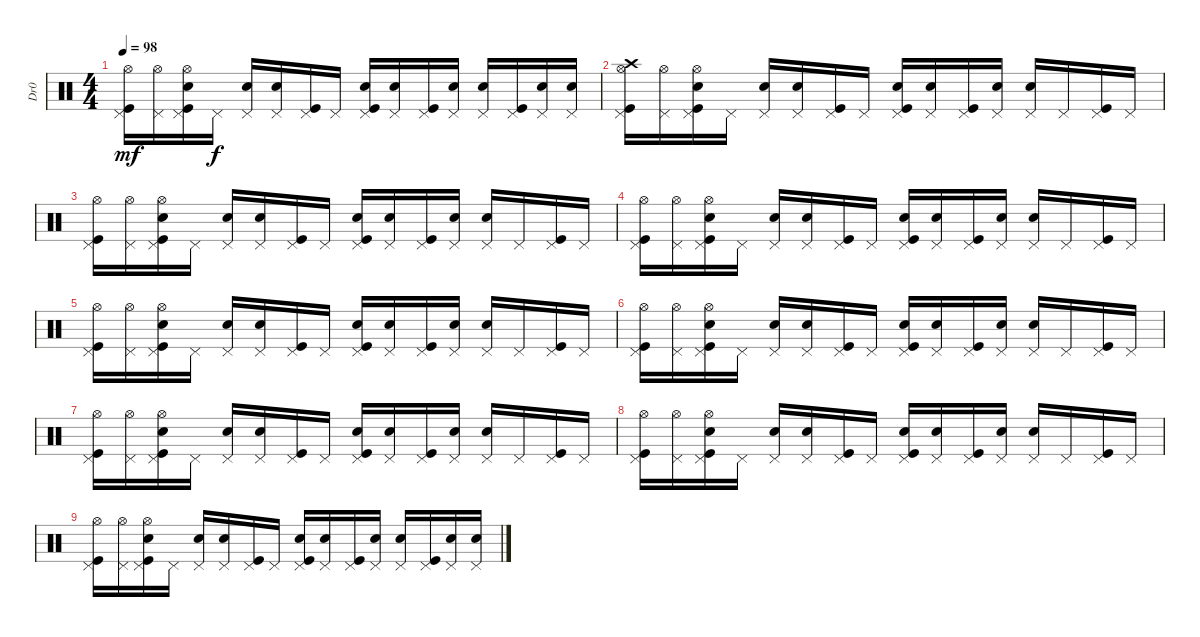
\track ("Dr0" "Dr0") {instrument percussion}
\staff {score}
\articulation defaults
\ts (4 4)
\tempo 98
\clef neutral
\ks c
("Kick (hit)" "Pedal Hi-Hat (hit)" "Hi-Hat (open)").16{dy mf} ("Pedal Hi-Hat (hit)" "Hi-Hat (open)").16 ("Kick (hit)" "Pedal Hi-Hat (hit)" "Hand Clap (hit)" "Hi-Hat (open)").16 "Pedal Hi-Hat (hit)".16{dy f} ("Pedal Hi-Hat (hit)" "Snare (hit) 2").16 ("Pedal Hi-Hat (hit)" "Hand Clap (hit)").16 ("Kick (hit)" "Pedal Hi-Hat (hit)").16 "Pedal Hi-Hat (hit)".16 ("Kick (hit)" "Pedal Hi-Hat (hit)" "Hand Clap (hit)").16 ("Pedal Hi-Hat (hit)" "Snare (hit) 2").16 ("Kick (hit)" "Pedal Hi-Hat (hit)").16 ("Pedal Hi-Hat (hit)" "Hand Clap (hit)").16 ("Pedal Hi-Hat (hit)" "Snare (hit) 2").16 ("Kick (hit)" "Pedal Hi-Hat (hit)").16 ("Pedal Hi-Hat (hit)" "Snare (hit) 2").16 ("Pedal Hi-Hat (hit)" "Snare (hit) 2").16 |
("Kick (hit)" "Pedal Hi-Hat (hit)" "Crash high (hit)" "Hi-Hat (open)").16 ("Pedal Hi-Hat (hit)" "Hi-Hat (open)").16 ("Kick (hit)" "Pedal Hi-Hat (hit)" "Hand Clap (hit)" "Hi-Hat (open)").16 "Pedal Hi-Hat (hit)".16 ("Pedal Hi-Hat (hit)" "Snare (hit) 2").16 ("Pedal Hi-Hat (hit)" "Hand Clap (hit)").16 ("Kick (hit)" "Pedal Hi-Hat (hit)").16 "Pedal Hi-Hat (hit)".16 ("Kick (hit)" "Pedal Hi-Hat (hit)" "Hand Clap (hit)").16 ("Pedal Hi-Hat (hit)" "Snare (hit) 2").16 ("Kick (hit)" "Pedal Hi-Hat (hit)").16 ("Pedal Hi-Hat (hit)" "Hand Clap (hit)").16 ("Pedal Hi-Hat (hit)" "Snare (hit) 2").16 "Pedal Hi-Hat (hit)".16 ("Kick (hit)" "Pedal Hi-Hat (hit)").16 "Pedal Hi-Hat (hit)".16 |
("Kick (hit)" "Pedal Hi-Hat (hit)" "Hi-Hat (open)").16 ("Pedal Hi-Hat (hit)" "Hi-Hat (open)").16 ("Kick (hit)" "Pedal Hi-Hat (hit)" "Hand Clap (hit)" "Hi-Hat (open)").16 "Pedal Hi-Hat (hit)".16 ("Pedal Hi-Hat (hit)" "Snare (hit) 2").16 ("Pedal Hi-Hat (hit)" "Hand Clap (hit)").16 ("Kick (hit)" "Pedal Hi-Hat (hit)").16 "Pedal Hi-Hat (hit)".16 ("Kick (hit)" "Pedal Hi-Hat (hit)" "Hand Clap (hit)").16 ("Pedal Hi-Hat (hit)" "Snare (hit) 2").16 ("Kick (hit)" "Pedal Hi-Hat (hit)").16 ("Pedal Hi-Hat (hit)" "Hand Clap (hit)").16 ("Pedal Hi-Hat (hit)" "Snare (hit) 2").16 "Pedal Hi-Hat (hit)".16 ("Kick (hit)" "Pedal Hi-Hat (hit)").16 "Pedal Hi-Hat (hit)".16 |
("Kick (hit)" "Pedal Hi-Hat (hit)" "Hi-Hat (open)").16 ("Pedal Hi-Hat (hit)" "Hi-Hat (open)").16 ("Kick (hit)" "Pedal Hi-Hat (hit)" "Hand Clap (hit)" "Hi-Hat (open)").16 "Pedal Hi-Hat (hit)".16 ("Pedal Hi-Hat (hit)" "Snare (hit) 2").16 ("Pedal Hi-Hat (hit)" "Hand Clap (hit)").16 ("Kick (hit)" "Pedal Hi-Hat (hit)").16 "Pedal Hi-Hat (hit)".16 ("Kick (hit)" "Pedal Hi-Hat (hit)" "Hand Clap (hit)").16 ("Pedal Hi-Hat (hit)" "Snare (hit) 2").16 ("Kick (hit)" "Pedal Hi-Hat (hit)").16 ("Pedal Hi-Hat (hit)" "Hand Clap (hit)").16 ("Pedal Hi-Hat (hit)" "Snare (hit) 2").16 "Pedal Hi-Hat (hit)".16 ("Kick (hit)" "Pedal Hi-Hat (hit)").16 "Pedal Hi-Hat (hit)".16 |
("Kick (hit)" "Pedal Hi-Hat (hit)" "Hi-Hat (open)").16 ("Pedal Hi-Hat (hit)" "Hi-Hat (open)").16 ("Kick (hit)" "Pedal Hi-Hat (hit)" "Hand Clap (hit)" "Hi-Hat (open)").16 "Pedal Hi-Hat (hit)".16 ("Pedal Hi-Hat (hit)" "Snare (hit) 2").16 ("Pedal Hi-Hat (hit)" "Hand Clap (hit)").16 ("Kick (hit)" "Pedal Hi-Hat (hit)").16 "Pedal Hi-Hat (hit)".16 ("Kick (hit)" "Pedal Hi-Hat (hit)" "Hand Clap (hit)").16 ("Pedal Hi-Hat (hit)" "Snare (hit) 2").16 ("Kick (hit)" "Pedal Hi-Hat (hit)").16 ("Pedal Hi-Hat (hit)" "Hand Clap (hit)").16 ("Pedal Hi-Hat (hit)" "Snare (hit) 2").16 "Pedal Hi-Hat (hit)".16 ("Kick (hit)" "Pedal Hi-Hat (hit)").16 "Pedal Hi-Hat (hit)".16 |
("Kick (hit)" "Pedal Hi-Hat (hit)" "Hi-Hat (open)").16 ("Pedal Hi-Hat (hit)" "Hi-Hat (open)").16 ("Kick (hit)" "Pedal Hi-Hat (hit)" "Hand Clap (hit)" "Hi-Hat (open)").16 "Pedal Hi-Hat (hit)".16 ("Pedal Hi-Hat (hit)" "Snare (hit) 2").16 ("Pedal Hi-Hat (hit)" "Hand Clap (hit)").16 ("Kick (hit)" "Pedal Hi-Hat (hit)").16 "Pedal Hi-Hat (hit)".16 ("Kick (hit)" "Pedal Hi-Hat (hit)" "Hand Clap (hit)").16 ("Pedal Hi-Hat (hit)" "Snare (hit) 2").16 ("Kick (hit)" "Pedal Hi-Hat (hit)").16 ("Pedal Hi-Hat (hit)" "Hand Clap (hit)").16 ("Pedal Hi-Hat (hit)" "Snare (hit) 2").16 "Pedal Hi-Hat (hit)".16 ("Kick (hit)" "Pedal Hi-Hat (hit)").16 "Pedal Hi-Hat (hit)".16 |
("Kick (hit)" "Pedal Hi-Hat (hit)" "Hi-Hat (open)").16 ("Pedal Hi-Hat (hit)" "Hi-Hat (open)").16 ("Kick (hit)" "Pedal Hi-Hat (hit)" "Hand Clap (hit)" "Hi-Hat (open)").16 "Pedal Hi-Hat (hit)".16 ("Pedal Hi-Hat (hit)" "Snare (hit) 2").16 ("Pedal Hi-Hat (hit)" "Hand Clap (hit)").16 ("Kick (hit)" "Pedal Hi-Hat (hit)").16 "Pedal Hi-Hat (hit)".16 ("Kick (hit)" "Pedal Hi-Hat (hit)" "Hand Clap (hit)").16 ("Pedal Hi-Hat (hit)" "Snare (hit) 2").16 ("Kick (hit)" "Pedal Hi-Hat (hit)").16 ("Pedal Hi-Hat (hit)" "Hand Clap (hit)").16 ("Pedal Hi-Hat (hit)" "Snare (hit) 2").16 "Pedal Hi-Hat (hit)".16 ("Kick (hit)" "Pedal Hi-Hat (hit)").16 "Pedal Hi-Hat (hit)".16 |
("Kick (hit)" "Pedal Hi-Hat (hit)" "Hi-Hat (open)").16 ("Pedal Hi-Hat (hit)" "Hi-Hat (open)").16 ("Kick (hit)" "Pedal Hi-Hat (hit)" "Hand Clap (hit)" "Hi-Hat (open)").16 "Pedal Hi-Hat (hit)".16 ("Pedal Hi-Hat (hit)" "Snare (hit) 2").16 ("Pedal Hi-Hat (hit)" "Hand Clap (hit)").16 ("Kick (hit)" "Pedal Hi-Hat (hit)").16 "Pedal Hi-Hat (hit)".16 ("Kick (hit)" "Pedal Hi-Hat (hit)" "Hand Clap (hit)").16 ("Pedal Hi-Hat (hit)" "Snare (hit) 2").16 ("Kick (hit)" "Pedal Hi-Hat (hit)").16 ("Pedal Hi-Hat (hit)" "Hand Clap (hit)").16 ("Pedal Hi-Hat (hit)" "Snare (hit) 2").16 "Pedal Hi-Hat (hit)".16 ("Kick (hit)" "Pedal Hi-Hat (hit)").16 "Pedal Hi-Hat (hit)".16 |
("Kick (hit)" "Pedal Hi-Hat (hit)" "Hi-Hat (open)").16 ("Pedal Hi-Hat (hit)" "Hi-Hat (open)").16 ("Kick (hit)" "Pedal Hi-Hat (hit)" "Hand Clap (hit)" "Hi-Hat (open)").16 "Pedal Hi-Hat (hit)".16 ("Pedal Hi-Hat (hit)" "Snare (hit) 2").16 ("Pedal Hi-Hat (hit)" "Hand Clap (hit)").16 ("Kick (hit)" "Pedal Hi-Hat (hit)").16 "Pedal Hi-Hat (hit)".16 ("Kick (hit)" "Pedal Hi-Hat (hit)" "Hand Clap (hit)").16 ("Pedal Hi-Hat (hit)" "Snare (hit) 2").16 ("Kick (hit)" "Pedal Hi-Hat (hit)").16 ("Pedal Hi-Hat (hit)" "Hand Clap (hit)").16 ("Pedal Hi-Hat (hit)" "Snare (hit) 2").16 ("Kick (hit)" "Pedal Hi-Hat (hit)").16 ("Pedal Hi-Hat (hit)" "Snare (hit) 2").16 ("Pedal Hi-Hat (hit)" "Snare (hit) 2").16
